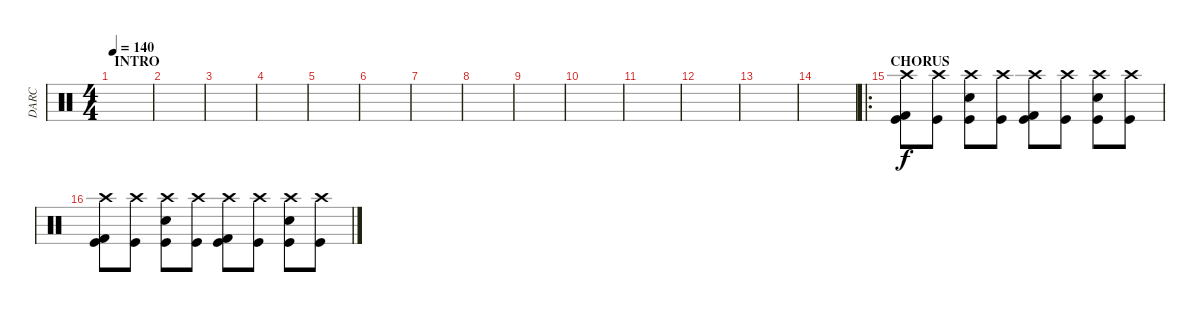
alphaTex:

\track ("DARC" "DARC") {instrument percussion}
\staff {score}
\articulation defaults
\ts (4 4)
\section ("" "INTRO")
\tempo 140
\clef neutral
\ks c
|
|
|
|
|
|
|
|
|
|
|
|
|
|
\ro
\section ("" "CHORUS")
("Kick (hit)" "Crash high (hit)" "Kick (hit) 2").8 ("Kick (hit)" "Crash high (hit)").8 ("Kick (hit)" "Crash high (hit)" "Snare (hit) 2").8 ("Kick (hit)" "Crash high (hit)").8 ("Kick (hit)" "Crash high (hit)" "Kick (hit) 2").8 ("Kick (hit)" "Crash high (hit)").8 ("Kick (hit)" "Crash high (hit)" "Snare (hit) 2").8 ("Kick (hit)" "Crash high (hit)").8 |
("Kick (hit)" "Crash high (hit)" "Kick (hit) 2").8 ("Kick (hit)" "Crash high (hit)").8 ("Kick (hit)" "Crash high (hit)" "Snare (hit) 2").8 ("Kick (hit)" "Crash high (hit)").8 ("Kick (hit)" "Crash high (hit)" "Kick (hit) 2").8 ("Kick (hit)" "Crash high (hit)").8 ("Kick (hit)" "Crash high (hit)" "Snare (hit) 2").8 ("Kick (hit)" "Crash high (hit)").8
